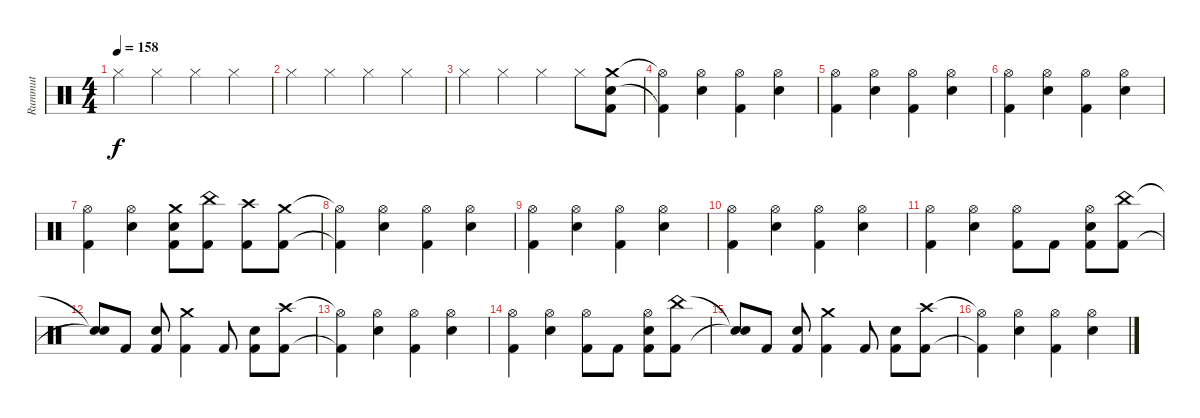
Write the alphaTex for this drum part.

\track ("Rummut" "Rummut") {instrument percussion}
\staff {score}
\articulation defaults
\ts (4 4)
\tempo 158
\clef neutral
\ks c "Hi-Hat (closed)".4{dy f} "Hi-Hat (closed)".4 "Hi-Hat (closed)".4 "Hi-Hat (closed)".4
|
"Hi-Hat (closed)".4 "Hi-Hat (closed)".4 "Hi-Hat (closed)".4 "Hi-Hat (closed)".4 |
"Hi-Hat (closed)".4 "Hi-Hat (closed)".4 "Hi-Hat (closed)".4 "Hi-Hat (closed)".8 ("Crash medium (hit)" "Electric Snare (hit)" "Kick (hit) 2").8 |
("Hi-Hat (open)"{t} "Kick (hit) 2"{t}).4 ("Hi-Hat (open)" "Electric Snare (hit)").4 ("Hi-Hat (open)" "Kick (hit) 2").4 ("Hi-Hat (open)" "Electric Snare (hit)").4 |
("Hi-Hat (open)" "Kick (hit) 2").4 ("Hi-Hat (open)" "Electric Snare (hit)").4 ("Hi-Hat (open)" "Kick (hit) 2").4 ("Hi-Hat (open)" "Electric Snare (hit)").4 |
("Hi-Hat (open)" "Kick (hit) 2").4 ("Hi-Hat (open)" "Electric Snare (hit)").4 ("Hi-Hat (open)" "Kick (hit) 2").4 ("Hi-Hat (open)" "Electric Snare (hit)").4 |
("Hi-Hat (open)" "Kick (hit) 2").4 ("Hi-Hat (open)" "Electric Snare (hit)").4 ("Crash medium (hit)" "Electric Snare (hit)" "Kick (hit) 2").8 ("China (hit)" "Kick (hit) 2").8 ("Crash high (hit)" "Kick (hit) 2").8 ("Crash medium (hit)" "Kick (hit) 2").8 |
("Hi-Hat (open)"{t} "Kick (hit) 2"{t}).4 ("Hi-Hat (open)" "Electric Snare (hit)").4 ("Hi-Hat (open)" "Kick (hit) 2").4 ("Hi-Hat (open)" "Electric Snare (hit)").4 |
("Hi-Hat (open)" "Kick (hit) 2").4 ("Hi-Hat (open)" "Electric Snare (hit)").4 ("Hi-Hat (open)" "Kick (hit) 2").4 ("Hi-Hat (open)" "Electric Snare (hit)").4 |
("Hi-Hat (open)" "Kick (hit) 2").4 ("Hi-Hat (open)" "Electric Snare (hit)").4 ("Hi-Hat (open)" "Kick (hit) 2").4 ("Hi-Hat (open)" "Electric Snare (hit)").4 |
("Hi-Hat (open)" "Kick (hit) 2").4 ("Hi-Hat (open)" "Electric Snare (hit)").4 ("Hi-Hat (open)" "Kick (hit) 2").8 "Kick (hit) 2".8 ("Hi-Hat (open)" "Electric Snare (hit)" "Kick (hit) 2").8 ("China (hit)" "Kick (hit) 2").8 |
("Snare (hit)"{t} "Snare (hit)"{t}).8 "Kick (hit) 2".8 ("Electric Snare (hit)" "Kick (hit) 2").8 ("Crash medium (hit)" "Kick (hit) 2").4 "Kick (hit) 2".8 ("Electric Snare (hit)" "Kick (hit) 2").8 ("Crash high (hit)" "Kick (hit) 2").8 |
("Hi-Hat (open)"{t} "Kick (hit) 2"{t}).4 ("Hi-Hat (open)" "Electric Snare (hit)").4 ("Hi-Hat (open)" "Kick (hit) 2").4 ("Hi-Hat (open)" "Electric Snare (hit)").4 |
("Hi-Hat (open)" "Kick (hit) 2").4 ("Hi-Hat (open)" "Electric Snare (hit)").4 ("Hi-Hat (open)" "Kick (hit) 2").8 "Kick (hit) 2".8 ("Hi-Hat (open)" "Electric Snare (hit)" "Kick (hit) 2").8 ("China (hit)" "Kick (hit) 2").8 |
("Snare (hit)"{t} "Snare (hit)"{t}).8 "Kick (hit) 2".8 ("Electric Snare (hit)" "Kick (hit) 2").8 ("Crash medium (hit)" "Kick (hit) 2").4 "Kick (hit) 2".8 ("Electric Snare (hit)" "Kick (hit) 2").8 ("Crash high (hit)" "Kick (hit) 2").8 |
("Hi-Hat (open)"{t} "Kick (hit) 2"{t}).4 ("Hi-Hat (open)" "Electric Snare (hit)").4 ("Hi-Hat (open)" "Kick (hit) 2").4 ("Hi-Hat (open)" "Electric Snare (hit)").4
